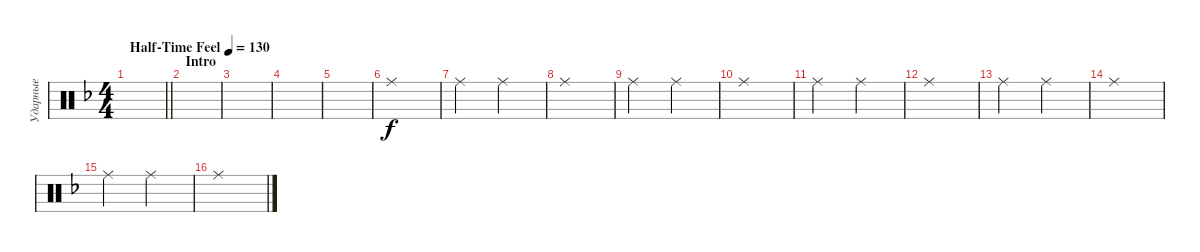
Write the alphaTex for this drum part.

\track ("Ударные" "Ударные") {instrument percussion}
\staff {score}
\articulation defaults
\ts (4 4)
\tempo (130 "Half-Time Feel")
\clef neutral
\barLineRight lightlight
\ks dminor
|
\section ("" "Intro")
|
|
|
|
"Ride (middle)".1 |
"Ride (middle)".2 "Ride (middle)".2 |
"Ride (middle)".1 |
"Ride (middle)".2 "Ride (middle)".2 |
"Ride (middle)".1 |
"Ride (middle)".2 "Ride (middle)".2 |
"Ride (middle)".1 |
"Ride (middle)".2 "Ride (middle)".2 |
"Ride (middle)".1 |
"Ride (middle)".2 "Ride (middle)".2 |
"Ride (middle)".1
